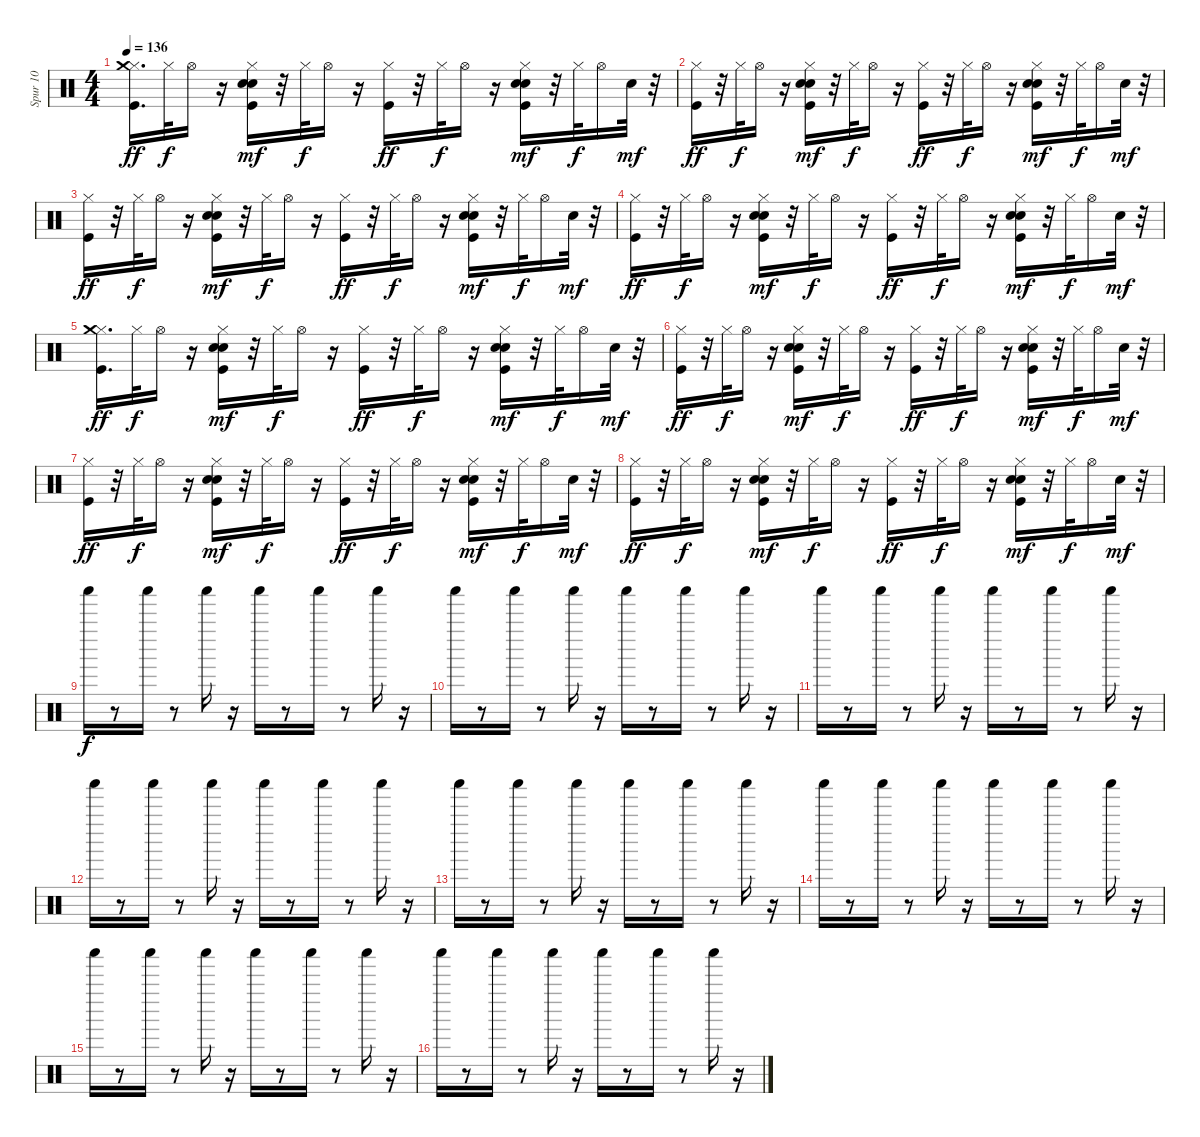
\track ("Spur 10" "Spur 10") {instrument percussion}
\staff {score}
\articulation defaults
\ts (4 4)
\tempo 136
\clef neutral
\ks c
("Kick (hit)" "Hi-Hat (closed)" "Crash medium (hit)").16{d dy ff} "Hi-Hat (closed)".32{dy f} "Hi-Hat (open)".16 r.16 ("Kick (hit)" "Snare (hit) 2" "Hi-Hat (closed)" "Hand Clap (hit)").16{dy mf} r.32 "Hi-Hat (closed)".32{dy f} "Hi-Hat (open)".16 r.16 ("Kick (hit)" "Hi-Hat (closed)").16{dy ff} r.32 "Hi-Hat (closed)".32{dy f} "Hi-Hat (open)".16 r.16 ("Kick (hit)" "Snare (hit) 2" "Hi-Hat (closed)" "Hand Clap (hit)").16{dy mf} r.32 "Hi-Hat (closed)".32{dy f} "Hi-Hat (open)".16 "Snare (hit) 2".32{dy mf} r.32 |
("Kick (hit)" "Hi-Hat (closed)").16{dy ff} r.32 "Hi-Hat (closed)".32{dy f} "Hi-Hat (open)".16 r.16 ("Kick (hit)" "Snare (hit) 2" "Hi-Hat (closed)" "Hand Clap (hit)").16{dy mf} r.32 "Hi-Hat (closed)".32{dy f} "Hi-Hat (open)".16 r.16 ("Kick (hit)" "Hi-Hat (closed)").16{dy ff} r.32 "Hi-Hat (closed)".32{dy f} "Hi-Hat (open)".16 r.16 ("Kick (hit)" "Snare (hit) 2" "Hi-Hat (closed)" "Hand Clap (hit)").16{dy mf} r.32 "Hi-Hat (closed)".32{dy f} "Hi-Hat (open)".16 "Snare (hit) 2".32{dy mf} r.32 |
("Kick (hit)" "Hi-Hat (closed)").16{dy ff} r.32 "Hi-Hat (closed)".32{dy f} "Hi-Hat (open)".16 r.16 ("Kick (hit)" "Snare (hit) 2" "Hi-Hat (closed)" "Hand Clap (hit)").16{dy mf} r.32 "Hi-Hat (closed)".32{dy f} "Hi-Hat (open)".16 r.16 ("Kick (hit)" "Hi-Hat (closed)").16{dy ff} r.32 "Hi-Hat (closed)".32{dy f} "Hi-Hat (open)".16 r.16 ("Kick (hit)" "Snare (hit) 2" "Hi-Hat (closed)" "Hand Clap (hit)").16{dy mf} r.32 "Hi-Hat (closed)".32{dy f} "Hi-Hat (open)".16 "Snare (hit) 2".32{dy mf} r.32 |
("Kick (hit)" "Hi-Hat (closed)").16{dy ff} r.32 "Hi-Hat (closed)".32{dy f} "Hi-Hat (open)".16 r.16 ("Kick (hit)" "Snare (hit) 2" "Hi-Hat (closed)" "Hand Clap (hit)").16{dy mf} r.32 "Hi-Hat (closed)".32{dy f} "Hi-Hat (open)".16 r.16 ("Kick (hit)" "Hi-Hat (closed)").16{dy ff} r.32 "Hi-Hat (closed)".32{dy f} "Hi-Hat (open)".16 r.16 ("Kick (hit)" "Snare (hit) 2" "Hi-Hat (closed)" "Hand Clap (hit)").16{dy mf} r.32 "Hi-Hat (closed)".32{dy f} "Hi-Hat (open)".16 "Snare (hit) 2".32{dy mf} r.32 |
("Kick (hit)" "Hi-Hat (closed)" "Crash medium (hit)").16{d dy ff} "Hi-Hat (closed)".32{dy f} "Hi-Hat (open)".16 r.16 ("Kick (hit)" "Snare (hit) 2" "Hi-Hat (closed)" "Hand Clap (hit)").16{dy mf} r.32 "Hi-Hat (closed)".32{dy f} "Hi-Hat (open)".16 r.16 ("Kick (hit)" "Hi-Hat (closed)").16{dy ff} r.32 "Hi-Hat (closed)".32{dy f} "Hi-Hat (open)".16 r.16 ("Kick (hit)" "Snare (hit) 2" "Hi-Hat (closed)" "Hand Clap (hit)").16{dy mf} r.32 "Hi-Hat (closed)".32{dy f} "Hi-Hat (open)".16 "Snare (hit) 2".32{dy mf} r.32 |
("Kick (hit)" "Hi-Hat (closed)").16{dy ff} r.32 "Hi-Hat (closed)".32{dy f} "Hi-Hat (open)".16 r.16 ("Kick (hit)" "Snare (hit) 2" "Hi-Hat (closed)" "Hand Clap (hit)").16{dy mf} r.32 "Hi-Hat (closed)".32{dy f} "Hi-Hat (open)".16 r.16 ("Kick (hit)" "Hi-Hat (closed)").16{dy ff} r.32 "Hi-Hat (closed)".32{dy f} "Hi-Hat (open)".16 r.16 ("Kick (hit)" "Snare (hit) 2" "Hi-Hat (closed)" "Hand Clap (hit)").16{dy mf} r.32 "Hi-Hat (closed)".32{dy f} "Hi-Hat (open)".16 "Snare (hit) 2".32{dy mf} r.32 |
("Kick (hit)" "Hi-Hat (closed)").16{dy ff} r.32 "Hi-Hat (closed)".32{dy f} "Hi-Hat (open)".16 r.16 ("Kick (hit)" "Snare (hit) 2" "Hi-Hat (closed)" "Hand Clap (hit)").16{dy mf} r.32 "Hi-Hat (closed)".32{dy f} "Hi-Hat (open)".16 r.16 ("Kick (hit)" "Hi-Hat (closed)").16{dy ff} r.32 "Hi-Hat (closed)".32{dy f} "Hi-Hat (open)".16 r.16 ("Kick (hit)" "Snare (hit) 2" "Hi-Hat (closed)" "Hand Clap (hit)").16{dy mf} r.32 "Hi-Hat (closed)".32{dy f} "Hi-Hat (open)".16 "Snare (hit) 2".32{dy mf} r.32 |
("Kick (hit)" "Hi-Hat (closed)").16{dy ff} r.32 "Hi-Hat (closed)".32{dy f} "Hi-Hat (open)".16 r.16 ("Kick (hit)" "Snare (hit) 2" "Hi-Hat (closed)" "Hand Clap (hit)").16{dy mf} r.32 "Hi-Hat (closed)".32{dy f} "Hi-Hat (open)".16 r.16 ("Kick (hit)" "Hi-Hat (closed)").16{dy ff} r.32 "Hi-Hat (closed)".32{dy f} "Hi-Hat (open)".16 r.16 ("Kick (hit)" "Snare (hit) 2" "Hi-Hat (closed)" "Hand Clap (hit)").16{dy mf} r.32 "Hi-Hat (closed)".32{dy f} "Hi-Hat (open)".16 "Snare (hit) 2".32{dy mf} r.32 |
"Shaker (hit)".16{dy f} r.8 "Shaker (hit)".16 r.8 "Shaker (hit)".16 r.16 "Shaker (hit)".16 r.8 "Shaker (hit)".16 r.8 "Shaker (hit)".16 r.16 |
"Shaker (hit)".16 r.8 "Shaker (hit)".16 r.8 "Shaker (hit)".16 r.16 "Shaker (hit)".16 r.8 "Shaker (hit)".16 r.8 "Shaker (hit)".16 r.16 |
"Shaker (hit)".16 r.8 "Shaker (hit)".16 r.8 "Shaker (hit)".16 r.16 "Shaker (hit)".16 r.8 "Shaker (hit)".16 r.8 "Shaker (hit)".16 r.16 |
"Shaker (hit)".16 r.8 "Shaker (hit)".16 r.8 "Shaker (hit)".16 r.16 "Shaker (hit)".16 r.8 "Shaker (hit)".16 r.8 "Shaker (hit)".16 r.16 |
"Shaker (hit)".16 r.8 "Shaker (hit)".16 r.8 "Shaker (hit)".16 r.16 "Shaker (hit)".16 r.8 "Shaker (hit)".16 r.8 "Shaker (hit)".16 r.16 |
"Shaker (hit)".16 r.8 "Shaker (hit)".16 r.8 "Shaker (hit)".16 r.16 "Shaker (hit)".16 r.8 "Shaker (hit)".16 r.8 "Shaker (hit)".16 r.16 |
"Shaker (hit)".16 r.8 "Shaker (hit)".16 r.8 "Shaker (hit)".16 r.16 "Shaker (hit)".16 r.8 "Shaker (hit)".16 r.8 "Shaker (hit)".16 r.16 |
"Shaker (hit)".16 r.8 "Shaker (hit)".16 r.8 "Shaker (hit)".16 r.16 "Shaker (hit)".16 r.8 "Shaker (hit)".16 r.8 "Shaker (hit)".16 r.16
